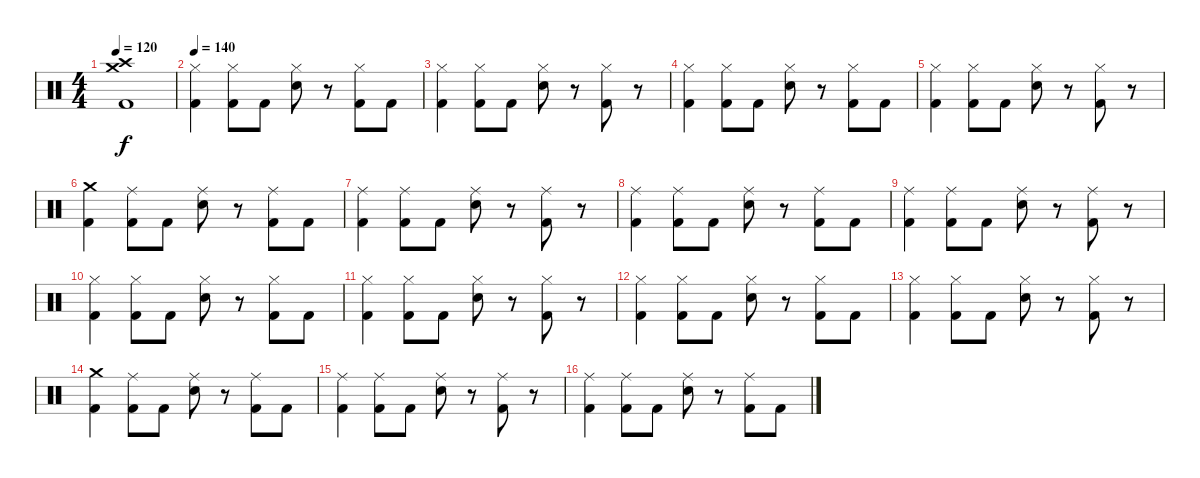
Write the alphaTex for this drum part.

\track "" {instrument percussion}
\staff {score}
\articulation defaults
\ts (4 4)
\tempo 120
\clef neutral
\ks c
("Kick (hit) 2" "Crash high (hit)" "Crash medium (hit)").1{dy f} |
\tempo 140
("Kick (hit) 2" "Hi-Hat (closed)").4 ("Kick (hit) 2" "Hi-Hat (closed)").8 "Kick (hit) 2".8 ("Snare (hit) 2" "Hi-Hat (closed)").8 r.8 ("Kick (hit) 2" "Hi-Hat (closed)").8 "Kick (hit) 2".8 |
("Kick (hit) 2" "Hi-Hat (closed)").4 ("Kick (hit) 2" "Hi-Hat (closed)").8 "Kick (hit) 2".8 ("Snare (hit) 2" "Hi-Hat (closed)").8 r.8 ("Kick (hit) 2" "Hi-Hat (closed)").8 r.8 |
("Kick (hit) 2" "Hi-Hat (closed)").4 ("Kick (hit) 2" "Hi-Hat (closed)").8 "Kick (hit) 2".8 ("Snare (hit) 2" "Hi-Hat (closed)").8 r.8 ("Kick (hit) 2" "Hi-Hat (closed)").8 "Kick (hit) 2".8 |
("Kick (hit) 2" "Hi-Hat (closed)").4 ("Kick (hit) 2" "Hi-Hat (closed)").8 "Kick (hit) 2".8 ("Snare (hit) 2" "Hi-Hat (closed)").8 r.8 ("Kick (hit) 2" "Hi-Hat (closed)").8 r.8 |
("Kick (hit) 2" "Crash medium (hit)").4 ("Kick (hit) 2" "Ride (middle)").8 "Kick (hit) 2".8 ("Snare (hit) 2" "Ride (middle)").8 r.8 ("Kick (hit) 2" "Ride (middle)").8 "Kick (hit) 2".8 |
("Kick (hit) 2" "Ride (middle)").4 ("Kick (hit) 2" "Ride (middle)").8 "Kick (hit) 2".8 ("Snare (hit) 2" "Ride (middle)").8 r.8 ("Kick (hit) 2" "Ride (middle)").8 r.8 |
("Kick (hit) 2" "Ride (middle)").4 ("Kick (hit) 2" "Ride (middle)").8 "Kick (hit) 2".8 ("Snare (hit) 2" "Ride (middle)").8 r.8 ("Kick (hit) 2" "Ride (middle)").8 "Kick (hit) 2".8 |
("Kick (hit) 2" "Ride (middle)").4 ("Kick (hit) 2" "Ride (middle)").8 "Kick (hit) 2".8 ("Snare (hit) 2" "Ride (middle)").8 r.8 ("Kick (hit) 2" "Ride (middle)").8 r.8 |
("Kick (hit) 2" "Hi-Hat (closed)").4 ("Kick (hit) 2" "Hi-Hat (closed)").8 "Kick (hit) 2".8 ("Snare (hit) 2" "Hi-Hat (closed)").8 r.8 ("Kick (hit) 2" "Hi-Hat (closed)").8 "Kick (hit) 2".8 |
("Kick (hit) 2" "Hi-Hat (closed)").4 ("Kick (hit) 2" "Hi-Hat (closed)").8 "Kick (hit) 2".8 ("Snare (hit) 2" "Hi-Hat (closed)").8 r.8 ("Kick (hit) 2" "Hi-Hat (closed)").8 r.8 |
("Kick (hit) 2" "Hi-Hat (closed)").4 ("Kick (hit) 2" "Hi-Hat (closed)").8 "Kick (hit) 2".8 ("Snare (hit) 2" "Hi-Hat (closed)").8 r.8 ("Kick (hit) 2" "Hi-Hat (closed)").8 "Kick (hit) 2".8 |
("Kick (hit) 2" "Hi-Hat (closed)").4 ("Kick (hit) 2" "Hi-Hat (closed)").8 "Kick (hit) 2".8 ("Snare (hit) 2" "Hi-Hat (closed)").8 r.8 ("Kick (hit) 2" "Hi-Hat (closed)").8 r.8 |
("Kick (hit) 2" "Crash medium (hit)").4 ("Kick (hit) 2" "Ride (middle)").8 "Kick (hit) 2".8 ("Snare (hit) 2" "Ride (middle)").8 r.8 ("Kick (hit) 2" "Ride (middle)").8 "Kick (hit) 2".8 |
("Kick (hit) 2" "Ride (middle)").4 ("Kick (hit) 2" "Ride (middle)").8 "Kick (hit) 2".8 ("Snare (hit) 2" "Ride (middle)").8 r.8 ("Kick (hit) 2" "Ride (middle)").8 r.8 |
("Kick (hit) 2" "Ride (middle)").4 ("Kick (hit) 2" "Ride (middle)").8 "Kick (hit) 2".8 ("Snare (hit) 2" "Ride (middle)").8 r.8 ("Kick (hit) 2" "Ride (middle)").8 "Kick (hit) 2".8
